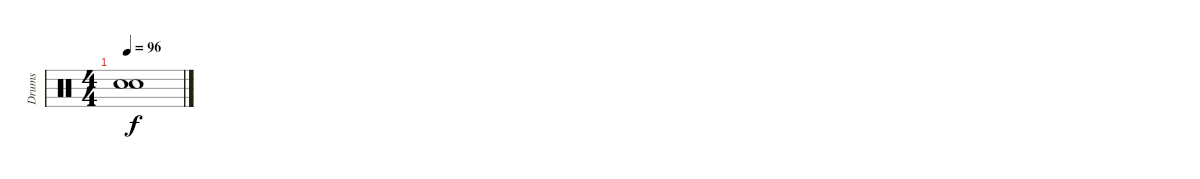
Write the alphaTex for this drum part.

\track ("Drums" "Drums") {instrument percussion}
\staff {score}
\articulation defaults
\ts (4 4)
\tempo 96
\clef neutral
\ks c
("Snare (hit)"{t} "Snare (hit)"{t}).1{dy f}
